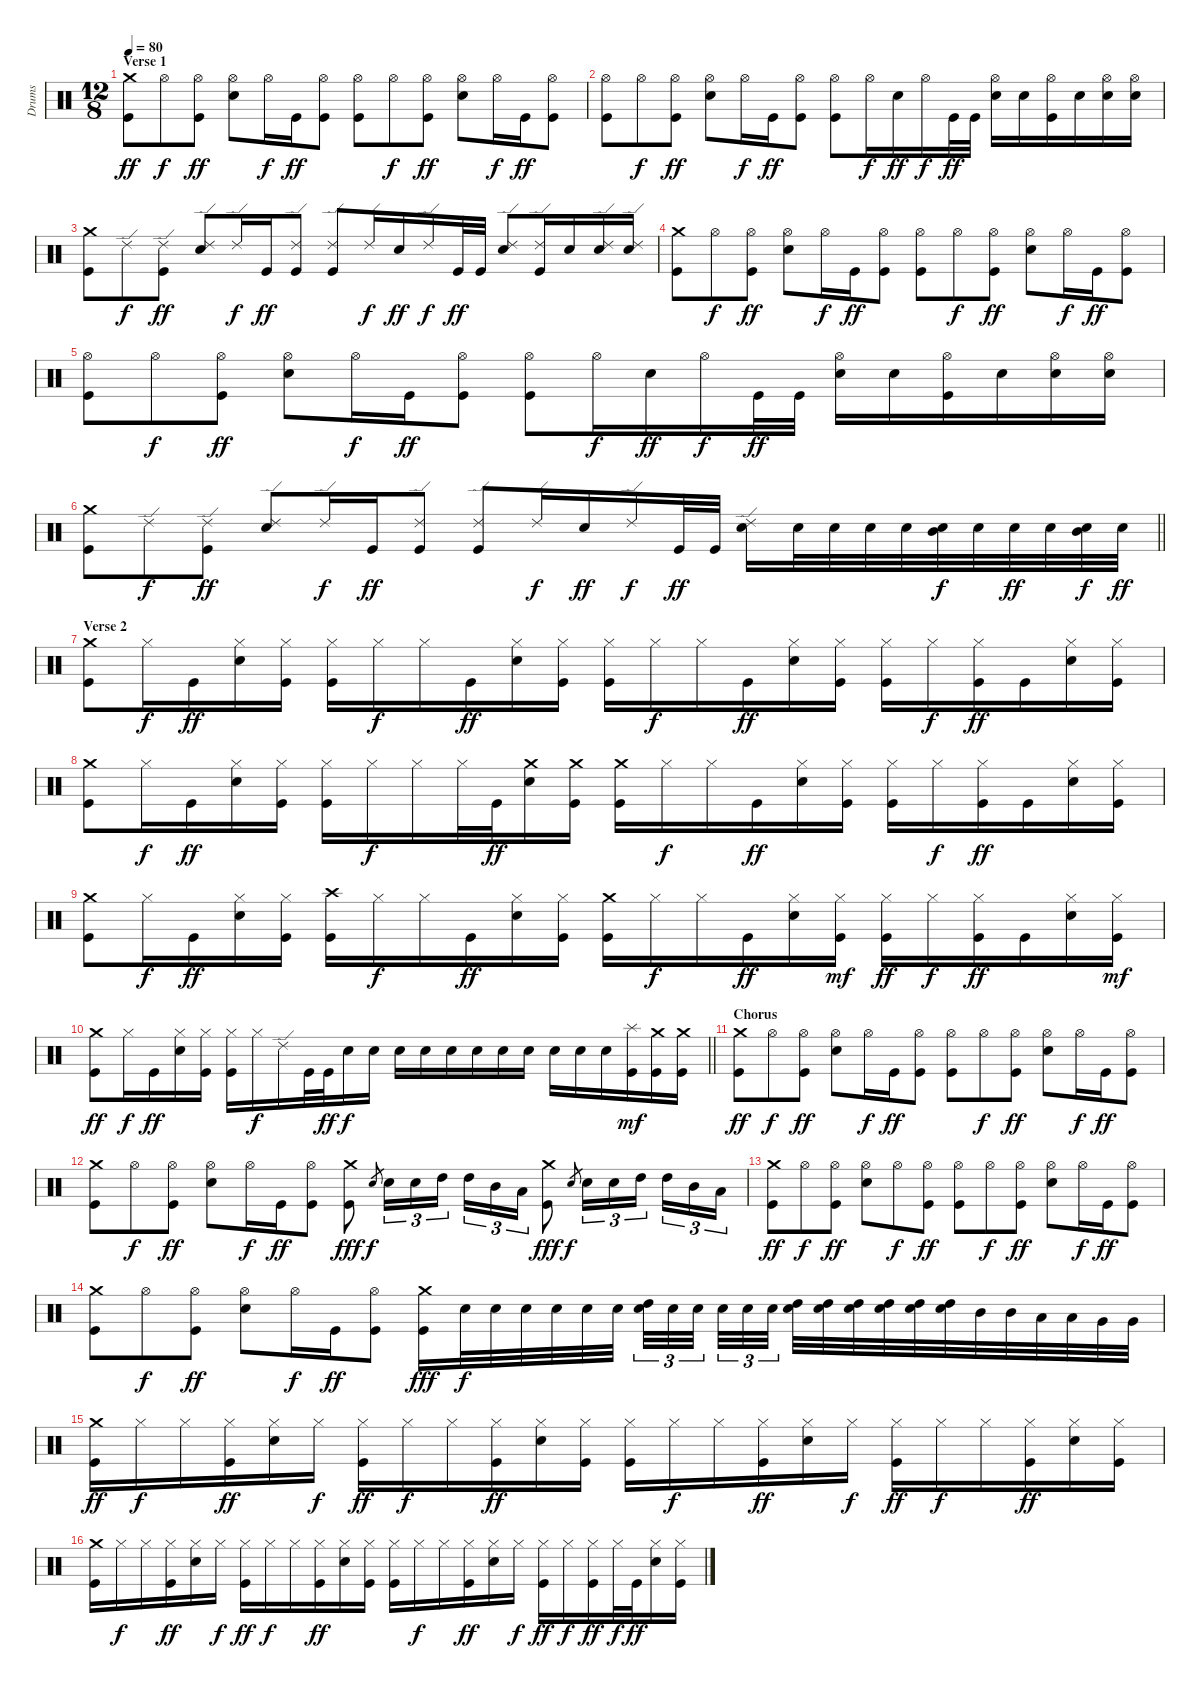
\track ("Drums" "Drums") {instrument percussion}
\staff {score}
\articulation defaults
\ts (12 8)
\section ("" "Verse 1")
\tempo 80
\clef neutral
\ks c
("Kick (hit)" "Crash medium (hit)").8{dy ff} "Hi-Hat (open)".8{dy f} ("Kick (hit)" "Hi-Hat (open)").8{dy ff} ("Electric Snare (hit)" "Hi-Hat (open)").8 "Hi-Hat (open)".16{dy f} "Kick (hit)".16{dy ff} ("Kick (hit)" "Hi-Hat (open)").8 ("Kick (hit)" "Hi-Hat (open)").8 "Hi-Hat (open)".8{dy f} ("Kick (hit)" "Hi-Hat (open)").8{dy ff} ("Electric Snare (hit)" "Hi-Hat (open)").8 "Hi-Hat (open)".16{dy f} "Kick (hit)".16{dy ff} ("Kick (hit)" "Hi-Hat (open)").8 |
("Kick (hit)" "Hi-Hat (open)").8 "Hi-Hat (open)".8{dy f} ("Kick (hit)" "Hi-Hat (open)").8{dy ff} ("Electric Snare (hit)" "Hi-Hat (open)").8 "Hi-Hat (open)".16{dy f} "Kick (hit)".16{dy ff} ("Kick (hit)" "Hi-Hat (open)").8 ("Kick (hit)" "Hi-Hat (open)").8 "Hi-Hat (open)".16{dy f} "Electric Snare (hit)".16{dy ff} "Hi-Hat (open)".16{dy f} "Kick (hit)".32{dy ff} "Kick (hit)".32 ("Electric Snare (hit)" "Hi-Hat (open)").16 "Electric Snare (hit)".16 ("Kick (hit)" "Hi-Hat (open)").16 "Electric Snare (hit)".16 ("Electric Snare (hit)" "Hi-Hat (open)").16 ("Electric Snare (hit)" "Hi-Hat (open)").16 |
("Kick (hit)" "Crash medium (hit)").8 "Ride (edge) 2".8{dy f} ("Kick (hit)" "Ride (edge) 2").8{dy ff} ("Electric Snare (hit)" "Ride (edge) 2").8 "Ride (edge) 2".16{dy f} "Kick (hit)".16{dy ff} ("Kick (hit)" "Ride (edge) 2").8 ("Kick (hit)" "Ride (edge) 2").8 "Ride (edge) 2".16{dy f} "Electric Snare (hit)".16{dy ff} "Ride (edge) 2".16{dy f} "Kick (hit)".32{dy ff} "Kick (hit)".32 ("Electric Snare (hit)" "Ride (edge) 2").8 ("Kick (hit)" "Ride (edge) 2").16 "Electric Snare (hit)".16 ("Electric Snare (hit)" "Ride (edge) 2").16 ("Electric Snare (hit)" "Ride (edge) 2").16 |
("Kick (hit)" "Crash medium (hit)").8 "Hi-Hat (open)".8{dy f} ("Kick (hit)" "Hi-Hat (open)").8{dy ff} ("Electric Snare (hit)" "Hi-Hat (open)").8 "Hi-Hat (open)".16{dy f} "Kick (hit)".16{dy ff} ("Kick (hit)" "Hi-Hat (open)").8 ("Kick (hit)" "Hi-Hat (open)").8 "Hi-Hat (open)".8{dy f} ("Kick (hit)" "Hi-Hat (open)").8{dy ff} ("Electric Snare (hit)" "Hi-Hat (open)").8 "Hi-Hat (open)".16{dy f} "Kick (hit)".16{dy ff} ("Kick (hit)" "Hi-Hat (open)").8 |
("Kick (hit)" "Hi-Hat (open)").8 "Hi-Hat (open)".8{dy f} ("Kick (hit)" "Hi-Hat (open)").8{dy ff} ("Electric Snare (hit)" "Hi-Hat (open)").8 "Hi-Hat (open)".16{dy f} "Kick (hit)".16{dy ff} ("Kick (hit)" "Hi-Hat (open)").8 ("Kick (hit)" "Hi-Hat (open)").8 "Hi-Hat (open)".16{dy f} "Electric Snare (hit)".16{dy ff} "Hi-Hat (open)".16{dy f} "Kick (hit)".32{dy ff} "Kick (hit)".32 ("Electric Snare (hit)" "Hi-Hat (open)").16 "Electric Snare (hit)".16 ("Kick (hit)" "Hi-Hat (open)").16 "Electric Snare (hit)".16 ("Electric Snare (hit)" "Hi-Hat (open)").16 ("Electric Snare (hit)" "Hi-Hat (open)").16 |
\barLineRight lightlight
("Kick (hit)" "Crash medium (hit)").8 "Ride (edge) 2".8{dy f} ("Kick (hit)" "Ride (edge) 2").8{dy ff} ("Electric Snare (hit)" "Ride (edge) 2").8 "Ride (edge) 2".16{dy f} "Kick (hit)".16{dy ff} ("Kick (hit)" "Ride (edge) 2").8 ("Kick (hit)" "Ride (edge) 2").8 "Ride (edge) 2".16{dy f} "Electric Snare (hit)".16{dy ff} "Ride (edge) 2".16{dy f} "Kick (hit)".32{dy ff} "Kick (hit)".32 ("Electric Snare (hit)" "Ride (edge) 2").16 "Electric Snare (hit)".32 "Electric Snare (hit)".32 "Electric Snare (hit)".32 "Electric Snare (hit)".32 ("Electric Snare (hit)" "Mid Tom (hit)").32{dy f} "Electric Snare (hit)".32 "Electric Snare (hit)".32{dy ff} "Electric Snare (hit)".32 ("Electric Snare (hit)" "Mid Tom (hit)").32{dy f} "Electric Snare (hit)".32{dy ff} |
\section ("" "Verse 2")
("Kick (hit)" "Crash medium (hit)").8 "Hi-Hat (closed)".16{dy f} "Kick (hit)".16{dy ff} ("Electric Snare (hit)" "Hi-Hat (closed)").16 ("Kick (hit)" "Hi-Hat (closed)").16 ("Kick (hit)" "Hi-Hat (closed)").16 "Hi-Hat (closed)".16{dy f} "Hi-Hat (closed)".16 "Kick (hit)".16{dy ff} ("Electric Snare (hit)" "Hi-Hat (closed)").16 ("Kick (hit)" "Hi-Hat (closed)").16 ("Kick (hit)" "Hi-Hat (closed)").16 "Hi-Hat (closed)".16{dy f} "Hi-Hat (closed)".16 "Kick (hit)".16{dy ff} ("Electric Snare (hit)" "Hi-Hat (closed)").16 ("Kick (hit)" "Hi-Hat (closed)").16 ("Kick (hit)" "Hi-Hat (closed)").16 "Hi-Hat (closed)".16{dy f} ("Kick (hit)" "Hi-Hat (closed)").16{dy ff} "Kick (hit)".16 ("Electric Snare (hit)" "Hi-Hat (closed)").16 ("Kick (hit)" "Hi-Hat (closed)").16 |
("Kick (hit)" "Crash medium (hit)").8 "Hi-Hat (closed)".16{dy f} "Kick (hit)".16{dy ff} ("Electric Snare (hit)" "Hi-Hat (closed)").16 ("Kick (hit)" "Hi-Hat (closed)").16 ("Kick (hit)" "Hi-Hat (closed)").16 "Hi-Hat (closed)".16{dy f} "Hi-Hat (closed)".16 "Hi-Hat (closed)".32 "Kick (hit)".32{dy ff} ("Electric Snare (hit)" "Crash medium (hit)").16 ("Kick (hit)" "Crash medium (hit)").16 ("Kick (hit)" "Crash medium (hit)").16 "Hi-Hat (closed)".16{dy f} "Hi-Hat (closed)".16 "Kick (hit)".16{dy ff} ("Electric Snare (hit)" "Hi-Hat (closed)").16 ("Kick (hit)" "Hi-Hat (closed)").16 ("Kick (hit)" "Hi-Hat (closed)").16 "Hi-Hat (closed)".16{dy f} ("Kick (hit)" "Hi-Hat (closed)").16{dy ff} "Kick (hit)".16 ("Electric Snare (hit)" "Hi-Hat (closed)").16 ("Kick (hit)" "Hi-Hat (closed)").16 |
("Kick (hit)" "Crash medium (hit)").8 "Hi-Hat (closed)".16{dy f} "Kick (hit)".16{dy ff} ("Electric Snare (hit)" "Hi-Hat (closed)").16 ("Kick (hit)" "Hi-Hat (closed)").16 ("Kick (hit)" "Crash high (hit)").16 "Hi-Hat (closed)".16{dy f} "Hi-Hat (closed)".16 "Kick (hit)".16{dy ff} ("Electric Snare (hit)" "Hi-Hat (closed)").16 ("Kick (hit)" "Hi-Hat (closed)").16 ("Kick (hit)" "Crash medium (hit)").16 "Hi-Hat (closed)".16{dy f} "Hi-Hat (closed)".16 "Kick (hit)".16{dy ff} ("Electric Snare (hit)" "Hi-Hat (closed)").16 ("Kick (hit)" "Hi-Hat (closed)").16{dy mf} ("Kick (hit)" "Hi-Hat (closed)").16{dy ff} "Hi-Hat (closed)".16{dy f} ("Kick (hit)" "Hi-Hat (closed)").16{dy ff} "Kick (hit)".16 ("Electric Snare (hit)" "Hi-Hat (closed)").16 ("Kick (hit)" "Hi-Hat (closed)").16{dy mf} |
\barLineRight lightlight
("Kick (hit)" "Crash medium (hit)").8{dy ff} "Hi-Hat (closed)".16{dy f} "Kick (hit)".16{dy ff} ("Electric Snare (hit)" "Hi-Hat (closed)").16 ("Kick (hit)" "Hi-Hat (closed)").16 ("Kick (hit)" "Hi-Hat (closed)").16 "Hi-Hat (closed)".16{dy f} "Ride (edge) 2".16 "Kick (hit)".32 "Kick (hit)".32{dy ff} "Electric Snare (hit)".16{dy f} "Electric Snare (hit)".16 "Electric Snare (hit)".16 "Electric Snare (hit)".16 "Electric Snare (hit)".16 "Electric Snare (hit)".16 "Electric Snare (hit)".16 "Electric Snare (hit)".16 "Electric Snare (hit)".16 "Electric Snare (hit)".16 "Electric Snare (hit)".16 ("Kick (hit)" "Splash (hit)").16{dy mf} ("Kick (hit)" "Crash medium (hit)").16 ("Kick (hit)" "Crash medium (hit)").16 |
\section ("" "Chorus")
("Kick (hit)" "Crash medium (hit)").8{dy ff} "Hi-Hat (open)".8{dy f} ("Kick (hit)" "Hi-Hat (open)").8{dy ff} ("Electric Snare (hit)" "Hi-Hat (open)").8 "Hi-Hat (open)".16{dy f} "Kick (hit)".16{dy ff} ("Kick (hit)" "Hi-Hat (open)").8 ("Kick (hit)" "Hi-Hat (open)").8 "Hi-Hat (open)".8{dy f} ("Kick (hit)" "Hi-Hat (open)").8{dy ff} ("Electric Snare (hit)" "Hi-Hat (open)").8 "Hi-Hat (open)".16{dy f} "Kick (hit)".16{dy ff} ("Kick (hit)" "Hi-Hat (open)").8 |
("Kick (hit)" "Crash medium (hit)").8 "Hi-Hat (open)".8{dy f} ("Kick (hit)" "Hi-Hat (open)").8{dy ff} ("Electric Snare (hit)" "Hi-Hat (open)").8 "Hi-Hat (open)".16{dy f} "Kick (hit)".16{dy ff} ("Kick (hit)" "Hi-Hat (open)").8 ("Kick (hit)" "Crash medium (hit)").8{dy fff} "Electric Snare (hit)".8{gr dy f} "Electric Snare (hit)".16{tu (3 2)} "Electric Snare (hit)".16{tu (3 2)} "High Tom (hit)".16{tu (3 2) beam splitsecondary} "High Tom (hit)".16{tu (3 2)} "Mid Tom (hit)".16{tu (3 2)} "Low Tom (hit)".16{tu (3 2)} ("Kick (hit)" "Crash medium (hit)").8{dy fff} "Electric Snare (hit)".8{gr dy f} "Electric Snare (hit)".16{tu (3 2)} "Electric Snare (hit)".16{tu (3 2)} "High Tom (hit)".16{tu (3 2) beam splitsecondary} "High Tom (hit)".16{tu (3 2)} "Mid Tom (hit)".16{tu (3 2)} "Low Tom (hit)".16{tu (3 2)} |
("Kick (hit)" "Crash medium (hit)").8{dy ff} "Hi-Hat (open)".8{dy f} ("Kick (hit)" "Hi-Hat (open)").8{dy ff} ("Electric Snare (hit)" "Hi-Hat (open)").8 "Hi-Hat (open)".8{dy f} ("Kick (hit)" "Hi-Hat (open)").8{dy ff} ("Kick (hit)" "Hi-Hat (open)").8 "Hi-Hat (open)".8{dy f} ("Kick (hit)" "Hi-Hat (open)").8{dy ff} ("Electric Snare (hit)" "Hi-Hat (open)").8 "Hi-Hat (open)".16{dy f} "Kick (hit)".16{dy ff} ("Kick (hit)" "Hi-Hat (open)").8 |
("Kick (hit)" "Crash medium (hit)").8 "Hi-Hat (open)".8{dy f} ("Kick (hit)" "Hi-Hat (open)").8{dy ff} ("Electric Snare (hit)" "Hi-Hat (open)").8 "Hi-Hat (open)".16{dy f} "Kick (hit)".16{dy ff} ("Kick (hit)" "Hi-Hat (open)").8 ("Kick (hit)" "Crash medium (hit)").16{dy fff} "Electric Snare (hit)".32{dy f} "Electric Snare (hit)".32 "Electric Snare (hit)".32 "Electric Snare (hit)".32 "Electric Snare (hit)".32 "Electric Snare (hit)".32{beam splitsecondary} ("Electric Snare (hit)" "High Tom (hit)").32{tu (3 2)} "Electric Snare (hit)".32{tu (3 2)} "Electric Snare (hit)".32{tu (3 2) beam splitsecondary} "Electric Snare (hit)".32{tu (3 2)} "Electric Snare (hit)".32{tu (3 2)} "Electric Snare (hit)".32{tu (3 2)} ("Electric Snare (hit)" "High Tom (hit)").32 ("Electric Snare (hit)" "High Tom (hit)").32 ("Electric Snare (hit)" "High Tom (hit)").32 ("Electric Snare (hit)" "High Tom (hit)").32 ("Electric Snare (hit)" "High Tom (hit)").32 ("Electric Snare (hit)" "High Tom (hit)").32 "Mid Tom (hit)".32 "Mid Tom (hit)".32 "Low Tom (hit)".32 "Low Tom (hit)".32 "Very Low Tom (hit)".32 "Very Low Tom (hit)".32 |
("Kick (hit)" "Crash medium (hit)").16{dy ff} "Hi-Hat (closed)".16{dy f} "Hi-Hat (closed)".16 ("Kick (hit)" "Hi-Hat (closed)").16{dy ff} ("Electric Snare (hit)" "Hi-Hat (closed)").16 "Hi-Hat (closed)".16{dy f} ("Kick (hit)" "Hi-Hat (closed)").16{dy ff} "Hi-Hat (closed)".16{dy f} "Hi-Hat (closed)".16 ("Kick (hit)" "Hi-Hat (closed)").16{dy ff} ("Electric Snare (hit)" "Hi-Hat (closed)").16 ("Kick (hit)" "Hi-Hat (closed)").16 ("Kick (hit)" "Hi-Hat (closed)").16 "Hi-Hat (closed)".16{dy f} "Hi-Hat (closed)".16 ("Kick (hit)" "Hi-Hat (closed)").16{dy ff} ("Electric Snare (hit)" "Hi-Hat (closed)").16 "Hi-Hat (closed)".16{dy f} ("Kick (hit)" "Hi-Hat (closed)").16{dy ff} "Hi-Hat (closed)".16{dy f} "Hi-Hat (closed)".16 ("Kick (hit)" "Hi-Hat (closed)").16{dy ff} ("Electric Snare (hit)" "Hi-Hat (closed)").16 ("Kick (hit)" "Hi-Hat (closed)").16 |
("Kick (hit)" "Crash medium (hit)").16 "Hi-Hat (closed)".16{dy f} "Hi-Hat (closed)".16 ("Kick (hit)" "Hi-Hat (closed)").16{dy ff} ("Electric Snare (hit)" "Hi-Hat (closed)").16 "Hi-Hat (closed)".16{dy f} ("Kick (hit)" "Hi-Hat (closed)").16{dy ff} "Hi-Hat (closed)".16{dy f} "Hi-Hat (closed)".16 ("Kick (hit)" "Hi-Hat (closed)").16{dy ff} ("Electric Snare (hit)" "Hi-Hat (closed)").16 ("Kick (hit)" "Hi-Hat (closed)").16 ("Kick (hit)" "Hi-Hat (closed)").16 "Hi-Hat (closed)".16{dy f} "Hi-Hat (closed)".16 ("Kick (hit)" "Hi-Hat (closed)").16{dy ff} ("Electric Snare (hit)" "Hi-Hat (closed)").16 "Hi-Hat (closed)".16{dy f} ("Kick (hit)" "Hi-Hat (closed)").16{dy ff} "Hi-Hat (closed)".16{dy f} ("Kick (hit)" "Hi-Hat (closed)").16{dy ff} "Hi-Hat (closed)".32{dy f} "Kick (hit)".32{dy ff} ("Electric Snare (hit)" "Hi-Hat (closed)").16 ("Kick (hit)" "Hi-Hat (closed)").16
